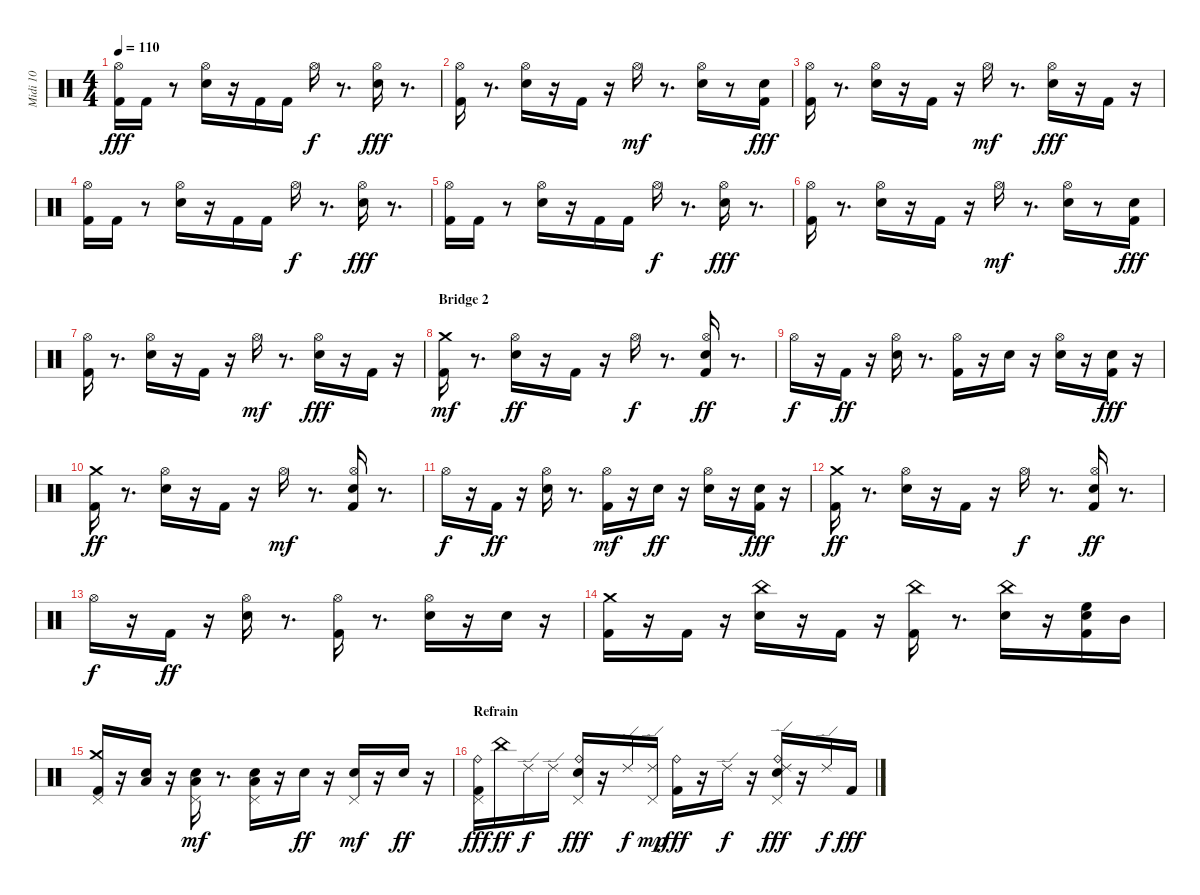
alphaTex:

\track ("Midi 10" "Midi 10") {instrument percussion}
\staff {score}
\articulation defaults
\ts (4 4)
\tempo 110
\clef neutral
\ks c
("Kick (hit) 2" "Hi-Hat (open)").16{dy fff} "Kick (hit) 2".16 r.8 ("Snare (hit) 2" "Hi-Hat (open)").16 r.16 "Kick (hit) 2".16 "Kick (hit) 2".16 "Hi-Hat (open)".16{dy f} r.8{d} ("Snare (hit) 2" "Hi-Hat (open)").16{dy fff} r.8{d} |
("Kick (hit) 2" "Hi-Hat (open)").16 r.8{d} ("Hi-Hat (open)" "Snare (hit) 2").16 r.16 "Kick (hit) 2".16 r.16 "Hi-Hat (open)".16{dy mf} r.8{d} ("Snare (hit) 2" "Hi-Hat (open)").16 r.8 ("Kick (hit) 2" "Snare (hit) 2").16{dy fff} |
("Kick (hit) 2" "Hi-Hat (open)").16 r.8{d} ("Snare (hit) 2" "Hi-Hat (open)").16 r.16 "Kick (hit) 2".16 r.16 "Hi-Hat (open)".16{dy mf} r.8{d} ("Hi-Hat (open)" "Snare (hit) 2").16{dy fff} r.16 "Kick (hit) 2".16 r.16 |
("Kick (hit) 2" "Hi-Hat (open)").16 "Kick (hit) 2".16 r.8 ("Snare (hit) 2" "Hi-Hat (open)").16 r.16 "Kick (hit) 2".16 "Kick (hit) 2".16 "Hi-Hat (open)".16{dy f} r.8{d} ("Snare (hit) 2" "Hi-Hat (open)").16{dy fff} r.8{d} |
("Kick (hit) 2" "Hi-Hat (open)").16 "Kick (hit) 2".16 r.8 ("Snare (hit) 2" "Hi-Hat (open)").16 r.16 "Kick (hit) 2".16 "Kick (hit) 2".16 "Hi-Hat (open)".16{dy f} r.8{d} ("Snare (hit) 2" "Hi-Hat (open)").16{dy fff} r.8{d} |
("Kick (hit) 2" "Hi-Hat (open)").16 r.8{d} ("Hi-Hat (open)" "Snare (hit) 2").16 r.16 "Kick (hit) 2".16 r.16 "Hi-Hat (open)".16{dy mf} r.8{d} ("Snare (hit) 2" "Hi-Hat (open)").16 r.8 ("Kick (hit) 2" "Snare (hit) 2").16{dy fff} |
("Kick (hit) 2" "Hi-Hat (open)").16 r.8{d} ("Snare (hit) 2" "Hi-Hat (open)").16 r.16 "Kick (hit) 2".16 r.16 "Hi-Hat (open)".16{dy mf} r.8{d} ("Hi-Hat (open)" "Snare (hit) 2").16{dy fff} r.16 "Kick (hit) 2".16 r.16 |
\section ("" "Bridge 2")
("Kick (hit) 2" "Crash medium (hit)").16{dy mf} r.8{d} ("Snare (hit) 2" "Hi-Hat (open)").16{dy ff} r.16 "Kick (hit) 2".16 r.16 "Hi-Hat (open)".16{dy f} r.8{d} ("Kick (hit) 2" "Snare (hit) 2" "Hi-Hat (open)").16{dy ff} r.8{d} |
"Hi-Hat (open)".16{dy f} r.16 "Kick (hit) 2".16{dy ff} r.16 ("Snare (hit) 2" "Hi-Hat (open)").16 r.8{d} ("Kick (hit) 2" "Hi-Hat (open)").16 r.16 "Snare (hit) 2".16 r.16 ("Snare (hit) 2" "Hi-Hat (open)").16 r.16 ("Kick (hit) 2" "Snare (hit) 2").16{dy fff} r.16 |
("Kick (hit) 2" "Crash medium (hit)").16{dy ff} r.8{d} ("Hi-Hat (open)" "Snare (hit) 2").16 r.16 "Kick (hit) 2".16 r.16 "Hi-Hat (open)".16{dy mf} r.8{d} ("Kick (hit) 2" "Snare (hit) 2" "Hi-Hat (open)").16 r.8{d} |
"Hi-Hat (open)".16{dy f} r.16 "Kick (hit) 2".16{dy ff} r.16 ("Snare (hit) 2" "Hi-Hat (open)").16 r.8{d} ("Kick (hit) 2" "Hi-Hat (open)").16{dy mf} r.16 "Snare (hit) 2".16{dy ff} r.16 ("Snare (hit) 2" "Hi-Hat (open)").16 r.16 ("Kick (hit) 2" "Snare (hit) 2").16{dy fff} r.16 |
("Kick (hit) 2" "Crash medium (hit)").16{dy ff} r.8{d} ("Snare (hit) 2" "Hi-Hat (open)").16 r.16 "Kick (hit) 2".16 r.16 "Hi-Hat (open)".16{dy f} r.8{d} ("Snare (hit) 2" "Kick (hit) 2" "Hi-Hat (open)").16{dy ff} r.8{d} |
"Hi-Hat (open)".16{dy f} r.16 "Kick (hit) 2".16{dy ff} r.16 ("Hi-Hat (open)" "Snare (hit) 2").16 r.8{d} ("Kick (hit) 2" "Hi-Hat (open)").16 r.8{d} ("Snare (hit) 2" "Hi-Hat (open)").16 r.16 "Snare (hit) 2".16 r.16 |
("Kick (hit) 2" "Crash medium (hit)").16 r.16 "Kick (hit) 2".16 r.16 ("Snare (hit) 2" "China (hit)").16 r.16 "Kick (hit) 2".16 r.16 ("Kick (hit) 2" "China (hit)").16 r.8{d} ("China (hit)" "Snare (hit) 2").16 r.16 ("Kick (hit) 2" "Snare (hit) 2" "High Floor Tom (hit)").16 "Mid Tom (hit)".16 |
("Pedal Hi-Hat (hit)" "Kick (hit) 2" "Crash medium (hit)").16 r.16 ("Snare (hit) 2" "Low Tom (hit)").16 r.16 ("Snare (hit) 2" "Low Tom (hit)" "Pedal Hi-Hat (hit)").16{dy mf} r.8{d} ("Snare (hit) 2" "Low Tom (hit)" "Pedal Hi-Hat (hit)").16 r.16 "Snare (hit) 2".16{dy ff} r.16 ("Snare (hit) 2" "Pedal Hi-Hat (hit)").16{dy mf} r.16 "Snare (hit) 2".16{dy ff} r.16 |
\section ("" "Refrain")
("Pedal Hi-Hat (hit)" "Ride (bell)" "Kick (hit) 2").16{dy fff} "China (hit)".16{dy ff} "Ride (edge) 2".16{dy f} "Ride (edge) 2".16 ("Ride (bell)" "Pedal Hi-Hat (hit)" "Snare (hit) 2").16{dy fff} r.16 "Ride (edge) 2".16{dy f} ("Ride (edge) 2" "Pedal Hi-Hat (hit)").16{dy mp} ("Ride (bell)" "Kick (hit) 2").16{dy fff} r.16 "Ride (edge) 2".16{dy f} r.16 ("Ride (edge) 2" "Ride (bell)" "Pedal Hi-Hat (hit)" "Snare (hit) 2").16{dy fff} r.16 "Ride (edge) 2".16{dy f} "Kick (hit) 2".16{dy fff}
